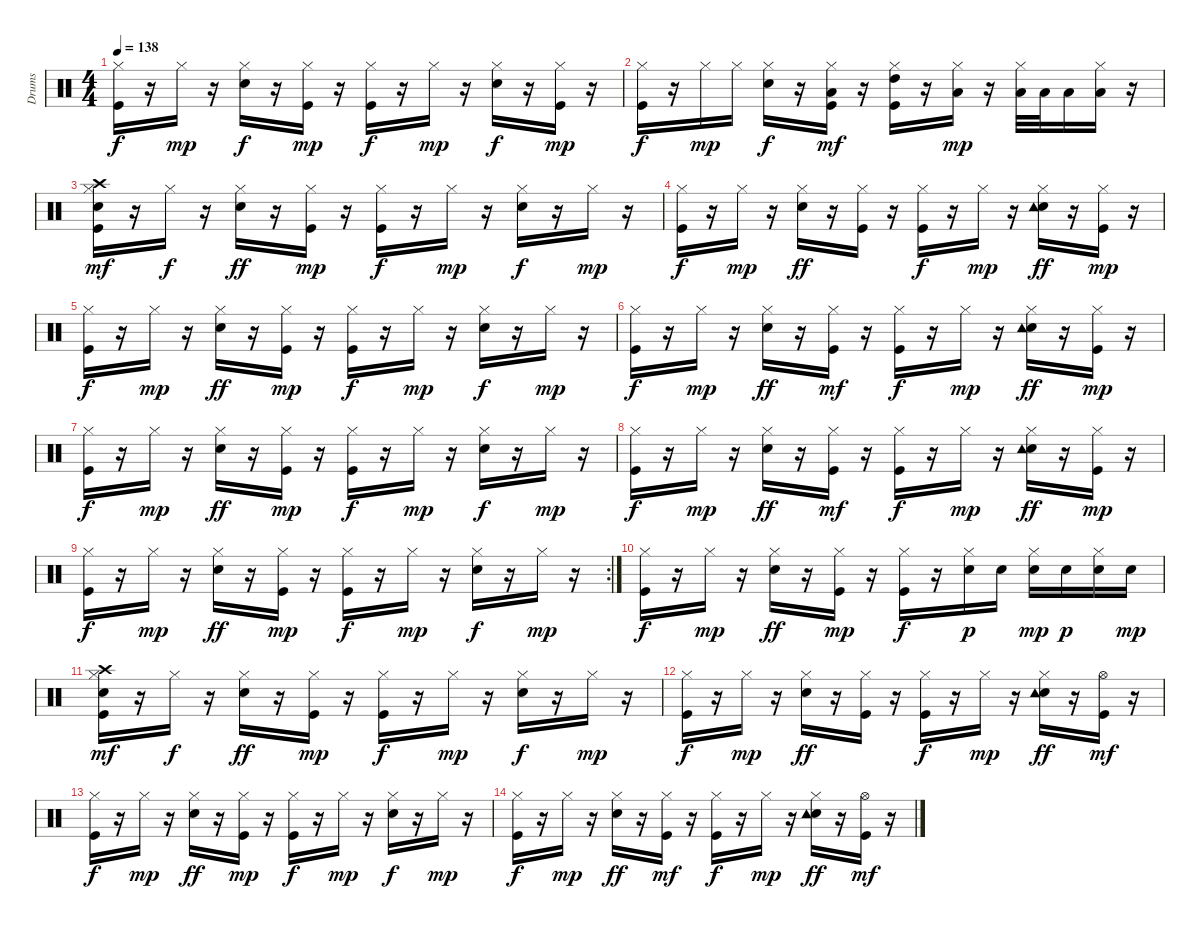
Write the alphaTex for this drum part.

\track ("Drums" "Drums") {instrument percussion}
\staff {score}
\articulation defaults
\ts (4 4)
\tempo 138
\clef neutral
\ks c
("Kick (hit)" "Hi-Hat (closed)").16{dy f} r.16 "Hi-Hat (closed)".16{dy mp} r.16 ("Snare (hit) 2" "Hi-Hat (closed)").16{dy f} r.16 ("Kick (hit)" "Hi-Hat (closed)").16{dy mp} r.16 ("Kick (hit)" "Hi-Hat (closed)").16{dy f} r.16 "Hi-Hat (closed)".16{dy mp} r.16 ("Snare (hit) 2" "Hi-Hat (closed)").16{dy f} r.16 ("Kick (hit)" "Hi-Hat (closed)").16{dy mp} r.16 |
("Kick (hit)" "Hi-Hat (closed)").16{dy f} r.16 "Hi-Hat (closed)".16{dy mp} "Hi-Hat (closed)".16 ("Snare (hit) 2" "Hi-Hat (closed)").16{dy f} r.16 ("Kick (hit)" "Hi-Hat (closed)" "Low Tom (hit)").16{dy mf} r.16 ("Kick (hit)" "Hi-Hat (closed)" "High Tom (hit)").16 r.16 ("Hi-Hat (closed)" "Low Tom (hit)").16{dy mp} r.16 ("Hi-Hat (closed)" "Low Tom (hit)").32 "Low Tom (hit)".32 "Low Tom (hit)".16 ("Hi-Hat (closed)" "Low Floor Tom (hit)").16 r.16 |
("Kick (hit)" "Snare (hit) 2" "Hi-Hat (closed)" "Crash high (hit)").16{dy mf} r.16 "Hi-Hat (closed)".16{dy f} r.16 ("Snare (hit) 2" "Hi-Hat (closed)").16{dy ff} r.16 ("Kick (hit)" "Hi-Hat (closed)").16{dy mp} r.16 ("Kick (hit)" "Hi-Hat (closed)").16{dy f} r.16 "Hi-Hat (closed)".16{dy mp} r.16 ("Snare (hit) 2" "Hi-Hat (closed)").16{dy f} r.16 "Hi-Hat (closed)".16{dy mp} r.16 |
("Kick (hit)" "Hi-Hat (closed)").16{dy f} r.16 "Hi-Hat (closed)".16{dy mp} r.16 ("Snare (hit) 2" "Hi-Hat (closed)").16{dy ff} r.16 ("Kick (hit)" "Hi-Hat (closed)").16 r.16 ("Kick (hit)" "Hi-Hat (closed)").16{dy f} r.16 "Hi-Hat (closed)".16{dy mp} r.16 ("Snare (hit) 2" "Hi-Hat (closed)" "Tambourine (hit)").16{dy ff} r.16 ("Kick (hit)" "Hi-Hat (closed)").16{dy mp} r.16 |
("Kick (hit)" "Hi-Hat (closed)").16{dy f} r.16 "Hi-Hat (closed)".16{dy mp} r.16 ("Snare (hit) 2" "Hi-Hat (closed)").16{dy ff} r.16 ("Kick (hit)" "Hi-Hat (closed)").16{dy mp} r.16 ("Kick (hit)" "Hi-Hat (closed)").16{dy f} r.16 "Hi-Hat (closed)".16{dy mp} r.16 ("Snare (hit) 2" "Hi-Hat (closed)").16{dy f} r.16 "Hi-Hat (closed)".16{dy mp} r.16 |
("Kick (hit)" "Hi-Hat (closed)").16{dy f} r.16 "Hi-Hat (closed)".16{dy mp} r.16 ("Snare (hit) 2" "Hi-Hat (closed)").16{dy ff} r.16 ("Kick (hit)" "Hi-Hat (closed)").16{dy mf} r.16 ("Kick (hit)" "Hi-Hat (closed)").16{dy f} r.16 "Hi-Hat (closed)".16{dy mp} r.16 ("Snare (hit) 2" "Hi-Hat (closed)" "Tambourine (hit)").16{dy ff} r.16 ("Kick (hit)" "Hi-Hat (closed)").16{dy mp} r.16 |
("Kick (hit)" "Hi-Hat (closed)").16{dy f} r.16 "Hi-Hat (closed)".16{dy mp} r.16 ("Snare (hit) 2" "Hi-Hat (closed)").16{dy ff} r.16 ("Kick (hit)" "Hi-Hat (closed)").16{dy mp} r.16 ("Kick (hit)" "Hi-Hat (closed)").16{dy f} r.16 "Hi-Hat (closed)".16{dy mp} r.16 ("Snare (hit) 2" "Hi-Hat (closed)").16{dy f} r.16 "Hi-Hat (closed)".16{dy mp} r.16 |
("Kick (hit)" "Hi-Hat (closed)").16{dy f} r.16 "Hi-Hat (closed)".16{dy mp} r.16 ("Snare (hit) 2" "Hi-Hat (closed)").16{dy ff} r.16 ("Kick (hit)" "Hi-Hat (closed)").16{dy mf} r.16 ("Kick (hit)" "Hi-Hat (closed)").16{dy f} r.16 "Hi-Hat (closed)".16{dy mp} r.16 ("Snare (hit) 2" "Hi-Hat (closed)" "Tambourine (hit)").16{dy ff} r.16 ("Kick (hit)" "Hi-Hat (closed)").16{dy mp} r.16 |
\rc 2
("Kick (hit)" "Hi-Hat (closed)").16{dy f} r.16 "Hi-Hat (closed)".16{dy mp} r.16 ("Snare (hit) 2" "Hi-Hat (closed)").16{dy ff} r.16 ("Kick (hit)" "Hi-Hat (closed)").16{dy mp} r.16 ("Kick (hit)" "Hi-Hat (closed)").16{dy f} r.16 "Hi-Hat (closed)".16{dy mp} r.16 ("Snare (hit) 2" "Hi-Hat (closed)").16{dy f} r.16 "Hi-Hat (closed)".16{dy mp} r.16 |
("Kick (hit)" "Hi-Hat (closed)").16{dy f} r.16 "Hi-Hat (closed)".16{dy mp} r.16 ("Snare (hit) 2" "Hi-Hat (closed)").16{dy ff} r.16 ("Kick (hit)" "Hi-Hat (closed)").16{dy mp} r.16 ("Kick (hit)" "Hi-Hat (closed)").16{dy f} r.16 ("Snare (hit) 2" "Hi-Hat (closed)").16{dy p} "Snare (hit) 2".16 ("Snare (hit) 2" "Hi-Hat (closed)").16{dy mp} "Snare (hit) 2".16{dy p} ("Snare (hit) 2" "Hi-Hat (closed)").16 "Snare (hit) 2".16{dy mp} |
("Kick (hit)" "Snare (hit) 2" "Hi-Hat (closed)" "Crash high (hit)").16{dy mf} r.16 "Hi-Hat (closed)".16{dy f} r.16 ("Snare (hit) 2" "Hi-Hat (closed)").16{dy ff} r.16 ("Kick (hit)" "Hi-Hat (closed)").16{dy mp} r.16 ("Kick (hit)" "Hi-Hat (closed)").16{dy f} r.16 "Hi-Hat (closed)".16{dy mp} r.16 ("Snare (hit) 2" "Hi-Hat (closed)").16{dy f} r.16 "Hi-Hat (closed)".16{dy mp} r.16 |
("Kick (hit)" "Hi-Hat (closed)").16{dy f} r.16 "Hi-Hat (closed)".16{dy mp} r.16 ("Snare (hit) 2" "Hi-Hat (closed)").16{dy ff} r.16 ("Kick (hit)" "Hi-Hat (closed)").16 r.16 ("Kick (hit)" "Hi-Hat (closed)").16{dy f} r.16 "Hi-Hat (closed)".16{dy mp} r.16 ("Snare (hit) 2" "Hi-Hat (closed)" "Tambourine (hit)").16{dy ff} r.16 ("Kick (hit)" "Hi-Hat (open)").16{dy mf} r.16 |
("Kick (hit)" "Hi-Hat (closed)").16{dy f} r.16 "Hi-Hat (closed)".16{dy mp} r.16 ("Snare (hit) 2" "Hi-Hat (closed)").16{dy ff} r.16 ("Kick (hit)" "Hi-Hat (closed)").16{dy mp} r.16 ("Kick (hit)" "Hi-Hat (closed)").16{dy f} r.16 "Hi-Hat (closed)".16{dy mp} r.16 ("Snare (hit) 2" "Hi-Hat (closed)").16{dy f} r.16 "Hi-Hat (closed)".16{dy mp} r.16 |
("Kick (hit)" "Hi-Hat (closed)").16{dy f} r.16 "Hi-Hat (closed)".16{dy mp} r.16 ("Snare (hit) 2" "Hi-Hat (closed)").16{dy ff} r.16 ("Kick (hit)" "Hi-Hat (closed)").16{dy mf} r.16 ("Kick (hit)" "Hi-Hat (closed)").16{dy f} r.16 "Hi-Hat (closed)".16{dy mp} r.16 ("Snare (hit) 2" "Hi-Hat (closed)" "Tambourine (hit)").16{dy ff} r.16 ("Kick (hit)" "Hi-Hat (open)").16{dy mf} r.16
